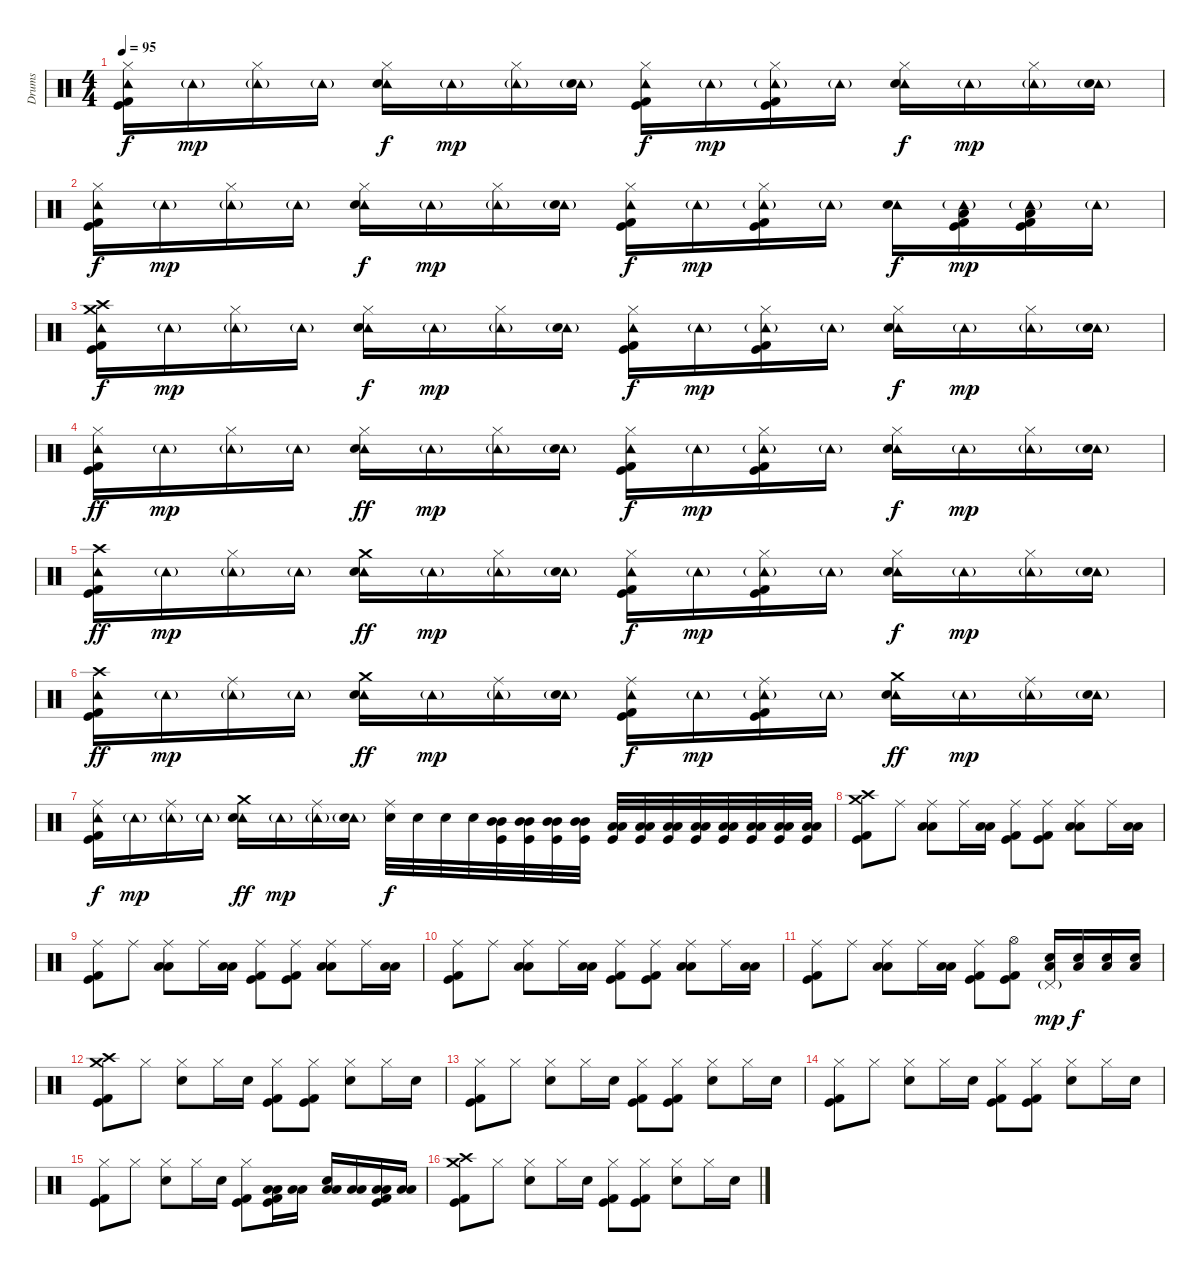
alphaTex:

\track ("Drums" "Drums") {instrument percussion}
\staff {score}
\articulation defaults
\ts (4 4)
\tempo 95
\clef neutral
\ks c
("Hi-Hat (closed)" "Tambourine (hit)" "Kick (hit) 2" "Kick (hit)").16{dy f} "Tambourine (hit)"{g}.16{dy mp} ("Hi-Hat (closed)" "Tambourine (hit)"{g}).16 "Tambourine (hit)"{g}.16 ("Hi-Hat (closed)" "Tambourine (hit)" "Snare (hit) 2").16{dy f} "Tambourine (hit)"{g}.16{dy mp} ("Hi-Hat (closed)" "Tambourine (hit)"{g}).16 ("Tambourine (hit)"{g} "Snare (hit) 2").16 ("Hi-Hat (closed)" "Tambourine (hit)" "Kick (hit) 2" "Kick (hit)").16{dy f} "Tambourine (hit)"{g}.16{dy mp} ("Hi-Hat (closed)" "Tambourine (hit)"{g} "Kick (hit) 2" "Kick (hit)").16 "Tambourine (hit)"{g}.16 ("Hi-Hat (closed)" "Tambourine (hit)" "Snare (hit) 2").16{dy f} "Tambourine (hit)"{g}.16{dy mp} ("Hi-Hat (closed)" "Tambourine (hit)"{g}).16 ("Tambourine (hit)"{g} "Snare (hit) 2").16 |
("Hi-Hat (closed)" "Tambourine (hit)" "Kick (hit) 2" "Kick (hit)").16{dy f} "Tambourine (hit)"{g}.16{dy mp} ("Hi-Hat (closed)" "Tambourine (hit)"{g}).16 "Tambourine (hit)"{g}.16 ("Hi-Hat (closed)" "Tambourine (hit)" "Snare (hit) 2").16{dy f} "Tambourine (hit)"{g}.16{dy mp} ("Hi-Hat (closed)" "Tambourine (hit)"{g}).16 ("Tambourine (hit)"{g} "Snare (hit) 2").16 ("Hi-Hat (closed)" "Tambourine (hit)" "Kick (hit) 2" "Kick (hit)").16{dy f} "Tambourine (hit)"{g}.16{dy mp} ("Hi-Hat (closed)" "Tambourine (hit)"{g} "Kick (hit) 2" "Kick (hit)").16 "Tambourine (hit)"{g}.16 ("Tambourine (hit)" "Snare (hit) 2").16{dy f} ("Low Floor Tom (hit)" "Tambourine (hit)"{g} "Kick (hit) 2" "Kick (hit)").16{dy mp} ("Low Floor Tom (hit)" "Tambourine (hit)"{g} "Kick (hit) 2" "Kick (hit)").16 "Tambourine (hit)"{g}.16 |
("Crash medium (hit)" "Tambourine (hit)" "Crash high (hit)" "Kick (hit) 2" "Kick (hit)").16{dy f} "Tambourine (hit)"{g}.16{dy mp} ("Hi-Hat (closed)" "Tambourine (hit)"{g}).16 "Tambourine (hit)"{g}.16 ("Hi-Hat (closed)" "Tambourine (hit)" "Snare (hit) 2").16{dy f} "Tambourine (hit)"{g}.16{dy mp} ("Hi-Hat (closed)" "Tambourine (hit)"{g}).16 ("Tambourine (hit)"{g} "Snare (hit) 2").16 ("Hi-Hat (closed)" "Tambourine (hit)" "Kick (hit) 2" "Kick (hit)").16{dy f} "Tambourine (hit)"{g}.16{dy mp} ("Hi-Hat (closed)" "Tambourine (hit)"{g} "Kick (hit) 2" "Kick (hit)").16 "Tambourine (hit)"{g}.16 ("Hi-Hat (closed)" "Tambourine (hit)" "Snare (hit) 2").16{dy f} "Tambourine (hit)"{g}.16{dy mp} ("Hi-Hat (closed)" "Tambourine (hit)"{g}).16 ("Tambourine (hit)"{g} "Snare (hit) 2").16 |
("Hi-Hat (closed)" "Tambourine (hit)" "Kick (hit) 2" "Kick (hit)").16{dy ff} "Tambourine (hit)"{g}.16{dy mp} ("Hi-Hat (closed)" "Tambourine (hit)"{g}).16 "Tambourine (hit)"{g}.16 ("Hi-Hat (closed)" "Tambourine (hit)" "Snare (hit) 2").16{dy ff} "Tambourine (hit)"{g}.16{dy mp} ("Hi-Hat (closed)" "Tambourine (hit)"{g}).16 ("Tambourine (hit)"{g} "Snare (hit) 2").16 ("Hi-Hat (closed)" "Tambourine (hit)" "Kick (hit) 2" "Kick (hit)").16{dy f} "Tambourine (hit)"{g}.16{dy mp} ("Hi-Hat (closed)" "Tambourine (hit)"{g} "Kick (hit) 2" "Kick (hit)").16 "Tambourine (hit)"{g}.16 ("Hi-Hat (closed)" "Tambourine (hit)" "Snare (hit) 2").16{dy f} "Tambourine (hit)"{g}.16{dy mp} ("Hi-Hat (closed)" "Tambourine (hit)"{g}).16 ("Tambourine (hit)"{g} "Snare (hit) 2").16 |
("Crash high (hit)" "Tambourine (hit)" "Kick (hit) 2" "Kick (hit)").16{dy ff} "Tambourine (hit)"{g}.16{dy mp} ("Hi-Hat (closed)" "Tambourine (hit)"{g}).16 "Tambourine (hit)"{g}.16 ("Crash medium (hit)" "Tambourine (hit)" "Snare (hit) 2").16{dy ff} "Tambourine (hit)"{g}.16{dy mp} ("Hi-Hat (closed)" "Tambourine (hit)"{g}).16 ("Tambourine (hit)"{g} "Snare (hit) 2").16 ("Hi-Hat (closed)" "Tambourine (hit)" "Kick (hit) 2" "Kick (hit)").16{dy f} "Tambourine (hit)"{g}.16{dy mp} ("Hi-Hat (closed)" "Tambourine (hit)"{g} "Kick (hit) 2" "Kick (hit)").16 "Tambourine (hit)"{g}.16 ("Hi-Hat (closed)" "Tambourine (hit)" "Snare (hit) 2").16{dy f} "Tambourine (hit)"{g}.16{dy mp} ("Hi-Hat (closed)" "Tambourine (hit)"{g}).16 ("Tambourine (hit)"{g} "Snare (hit) 2").16 |
("Crash high (hit)" "Tambourine (hit)" "Kick (hit) 2" "Kick (hit)").16{dy ff} "Tambourine (hit)"{g}.16{dy mp} ("Ride (middle)" "Tambourine (hit)"{g}).16 "Tambourine (hit)"{g}.16 ("Crash medium (hit)" "Tambourine (hit)" "Snare (hit) 2").16{dy ff} "Tambourine (hit)"{g}.16{dy mp} ("Ride (middle)" "Tambourine (hit)"{g}).16 ("Tambourine (hit)"{g} "Snare (hit) 2").16 ("Ride (middle)" "Tambourine (hit)" "Kick (hit) 2" "Kick (hit)").16{dy f} "Tambourine (hit)"{g}.16{dy mp} ("Ride (middle)" "Tambourine (hit)"{g} "Kick (hit) 2" "Kick (hit)").16 "Tambourine (hit)"{g}.16 ("Crash medium (hit)" "Tambourine (hit)" "Snare (hit) 2").16{dy ff} "Tambourine (hit)"{g}.16{dy mp} ("Ride (middle)" "Tambourine (hit)"{g}).16 ("Tambourine (hit)"{g} "Snare (hit) 2").16 |
("Ride (middle)" "Tambourine (hit)" "Kick (hit) 2" "Kick (hit)").16{dy f} "Tambourine (hit)"{g}.16{dy mp} ("Ride (middle)" "Tambourine (hit)"{g}).16 "Tambourine (hit)"{g}.16 ("Crash medium (hit)" "Tambourine (hit)" "Snare (hit) 2").16{dy ff} "Tambourine (hit)"{g}.16{dy mp} ("Ride (middle)" "Tambourine (hit)"{g}).16 ("Tambourine (hit)"{g} "Snare (hit) 2").16 ("Ride (middle)" "Snare (hit) 2").32{dy f} "Snare (hit) 2".32 "Snare (hit) 2".32 "Snare (hit) 2".32 ("Mid Tom (hit)" "Mid Tom (hit)" "Kick (hit)").32 ("Mid Tom (hit)" "Mid Tom (hit)" "Kick (hit)").32 ("Mid Tom (hit)" "Mid Tom (hit)" "Kick (hit)").32 ("Mid Tom (hit)" "Mid Tom (hit)" "Kick (hit)").32 ("Low Tom (hit)" "Low Tom (hit)" "Kick (hit)").32 ("Low Tom (hit)" "Low Tom (hit)" "Kick (hit)").32 ("Low Tom (hit)" "Low Tom (hit)" "Kick (hit)").32 ("Low Tom (hit)" "Low Tom (hit)" "Kick (hit)").32 ("Low Floor Tom (hit)" "Low Floor Tom (hit)" "Kick (hit)").32 ("Low Floor Tom (hit)" "Low Floor Tom (hit)" "Kick (hit)").32 ("Low Floor Tom (hit)" "Low Floor Tom (hit)" "Kick (hit)").32 ("Low Floor Tom (hit)" "Low Floor Tom (hit)" "Kick (hit)").32 |
("Crash high (hit)" "Crash medium (hit)" "Kick (hit) 2" "Kick (hit)").8 "Ride (middle)".8 ("Ride (middle)" "Low Floor Tom (hit)" "Low Tom (hit)").8 "Ride (middle)".16 ("Low Floor Tom (hit)" "Low Tom (hit)").16 ("Ride (middle)" "Kick (hit) 2" "Kick (hit)").8 ("Ride (middle)" "Kick (hit) 2" "Kick (hit)").8 ("Ride (middle)" "Low Floor Tom (hit)" "Low Tom (hit)").8 "Ride (middle)".16 ("Low Floor Tom (hit)" "Low Tom (hit)").16 |
("Ride (middle)" "Kick (hit) 2" "Kick (hit)").8 "Ride (middle)".8 ("Ride (middle)" "Low Floor Tom (hit)" "Low Tom (hit)").8 "Ride (middle)".16 ("Low Floor Tom (hit)" "Low Tom (hit)").16 ("Ride (middle)" "Kick (hit) 2" "Kick (hit)").8 ("Ride (middle)" "Kick (hit) 2" "Kick (hit)").8 ("Ride (middle)" "Low Floor Tom (hit)" "Low Tom (hit)").8 "Ride (middle)".16 ("Low Floor Tom (hit)" "Low Tom (hit)").16 |
("Ride (middle)" "Kick (hit) 2" "Kick (hit)").8 "Ride (middle)".8 ("Ride (middle)" "Low Floor Tom (hit)" "Low Tom (hit)").8 "Ride (middle)".16 ("Low Floor Tom (hit)" "Low Tom (hit)").16 ("Ride (middle)" "Kick (hit) 2" "Kick (hit)").8 ("Ride (middle)" "Kick (hit) 2" "Kick (hit)").8 ("Ride (middle)" "Low Floor Tom (hit)" "Low Tom (hit)").8 "Ride (middle)".16 ("Low Floor Tom (hit)" "Low Tom (hit)").16 |
("Ride (middle)" "Kick (hit) 2" "Kick (hit)").8 "Ride (middle)".8 ("Ride (middle)" "Low Floor Tom (hit)" "Low Tom (hit)").8 "Ride (middle)".16 ("Low Floor Tom (hit)" "Low Tom (hit)").16 ("Ride (middle)" "Kick (hit) 2" "Kick (hit)").8 ("Hi-Hat (open)" "Kick (hit) 2" "Kick (hit)").8 ("Pedal Hi-Hat (hit)"{g} "Low Floor Tom (hit)" "Snare (hit) 2").16{dy mp} ("Low Floor Tom (hit)" "Snare (hit) 2").16{dy f} ("Low Floor Tom (hit)" "Snare (hit) 2").16 ("Low Floor Tom (hit)" "Snare (hit) 2").16 |
("Crash high (hit)" "Crash medium (hit)" "Kick (hit) 2" "Kick (hit)").8 "Hi-Hat (closed)".8 ("Hi-Hat (closed)" "Snare (hit) 2").8 "Hi-Hat (closed)".16 "Snare (hit) 2".16 ("Hi-Hat (closed)" "Kick (hit) 2" "Kick (hit)").8 ("Hi-Hat (closed)" "Kick (hit) 2" "Kick (hit)").8 ("Hi-Hat (closed)" "Snare (hit) 2").8 "Hi-Hat (closed)".16 "Snare (hit) 2".16 |
("Hi-Hat (closed)" "Kick (hit) 2" "Kick (hit)").8 "Hi-Hat (closed)".8 ("Hi-Hat (closed)" "Snare (hit) 2").8 "Hi-Hat (closed)".16 "Snare (hit) 2".16 ("Hi-Hat (closed)" "Kick (hit) 2" "Kick (hit)").8 ("Hi-Hat (closed)" "Kick (hit) 2" "Kick (hit)").8 ("Hi-Hat (closed)" "Snare (hit) 2").8 "Hi-Hat (closed)".16 "Snare (hit) 2".16 |
("Hi-Hat (closed)" "Kick (hit) 2" "Kick (hit)").8 "Hi-Hat (closed)".8 ("Hi-Hat (closed)" "Snare (hit) 2").8 "Hi-Hat (closed)".16 "Snare (hit) 2".16 ("Hi-Hat (closed)" "Kick (hit) 2" "Kick (hit)").8 ("Hi-Hat (closed)" "Kick (hit) 2" "Kick (hit)").8 ("Hi-Hat (closed)" "Snare (hit) 2").8 "Hi-Hat (closed)".16 "Snare (hit) 2".16 |
("Hi-Hat (closed)" "Kick (hit) 2" "Kick (hit)").8 "Hi-Hat (closed)".8 ("Hi-Hat (closed)" "Snare (hit) 2").8 "Hi-Hat (closed)".16 "Snare (hit) 2".16 ("Hi-Hat (closed)" "Kick (hit) 2" "Kick (hit)").8 ("Low Floor Tom (hit)" "Low Floor Tom (hit)" "Kick (hit) 2" "Kick (hit)").16 ("Low Floor Tom (hit)" "Low Floor Tom (hit)").16 ("Low Floor Tom (hit)" "Low Floor Tom (hit)" "Snare (hit) 2").16 ("Low Floor Tom (hit)" "Low Floor Tom (hit)").16 ("Low Floor Tom (hit)" "Low Floor Tom (hit)" "Kick (hit) 2" "Kick (hit)").16 ("Low Floor Tom (hit)" "Low Floor Tom (hit)").16 |
("Crash high (hit)" "Crash medium (hit)" "Kick (hit) 2" "Kick (hit)").8 "Hi-Hat (closed)".8 ("Hi-Hat (closed)" "Snare (hit) 2").8 "Hi-Hat (closed)".16 "Snare (hit) 2".16 ("Hi-Hat (closed)" "Kick (hit) 2" "Kick (hit)").8 ("Hi-Hat (closed)" "Kick (hit) 2" "Kick (hit)").8 ("Hi-Hat (closed)" "Snare (hit) 2").8 "Hi-Hat (closed)".16 "Snare (hit) 2".16
